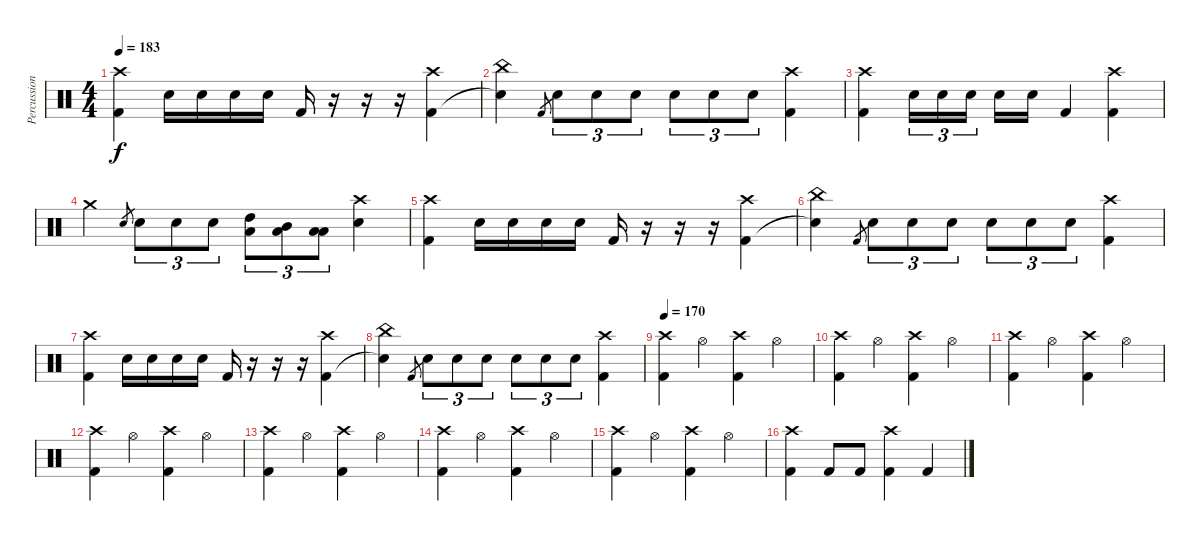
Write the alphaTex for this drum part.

\track ("Percussion" "Percussion") {instrument percussion}
\staff {score}
\articulation defaults
\ts (4 4)
\tempo 183
\clef neutral
\ks c
("Crash high (hit)" "Kick (hit) 2").4{dy f} "Electric Snare (hit)".16 "Electric Snare (hit)".16 "Electric Snare (hit)".16 "Electric Snare (hit)".16 "Kick (hit) 2".16 r.16 r.16 r.16 ("Crash high (hit)" "Kick (hit) 2").4 |
("China (hit)" "Snare (hit)"{t}).4 "Kick (hit) 2".8{gr} "Electric Snare (hit)".8{tu (3 2)} "Electric Snare (hit)".8{tu (3 2)} "Electric Snare (hit)".8{tu (3 2)} "Electric Snare (hit)".8{tu (3 2)} "Electric Snare (hit)".8{tu (3 2)} "Electric Snare (hit)".8{tu (3 2)} ("Crash high (hit)" "Kick (hit) 2").4 |
("Crash high (hit)" "Kick (hit) 2").4 "Electric Snare (hit)".16{tu (3 2)} "Electric Snare (hit)".16{tu (3 2)} "Electric Snare (hit)".16{tu (3 2)} "Electric Snare (hit)".16 "Electric Snare (hit)".16 "Kick (hit) 2".4 ("Crash high (hit)" "Kick (hit) 2").4 |
"Crash medium (hit)".4 "Electric Snare (hit)".8{gr} "Electric Snare (hit)".8{tu (3 2)} "Electric Snare (hit)".8{tu (3 2)} "Electric Snare (hit)".8{tu (3 2)} ("High Tom (hit)" "Low Floor Tom (hit)").8{tu (3 2)} ("Mid Tom (hit)" "Low Floor Tom (hit)").8{tu (3 2)} ("Low Tom (hit)" "Low Floor Tom (hit)").8{tu (3 2)} ("Crash high (hit)" "Electric Snare (hit)").4 |
("Crash high (hit)" "Kick (hit) 2").4 "Electric Snare (hit)".16 "Electric Snare (hit)".16 "Electric Snare (hit)".16 "Electric Snare (hit)".16 "Kick (hit) 2".16 r.16 r.16 r.16 ("Crash high (hit)" "Kick (hit) 2").4 |
("China (hit)" "Snare (hit)"{t}).4 "Kick (hit) 2".8{gr} "Electric Snare (hit)".8{tu (3 2)} "Electric Snare (hit)".8{tu (3 2)} "Electric Snare (hit)".8{tu (3 2)} "Electric Snare (hit)".8{tu (3 2)} "Electric Snare (hit)".8{tu (3 2)} "Electric Snare (hit)".8{tu (3 2)} ("Crash high (hit)" "Kick (hit) 2").4 |
("Crash high (hit)" "Kick (hit) 2").4 "Electric Snare (hit)".16 "Electric Snare (hit)".16 "Electric Snare (hit)".16 "Electric Snare (hit)".16 "Kick (hit) 2".16 r.16 r.16 r.16 ("Crash high (hit)" "Kick (hit) 2").4 |
("China (hit)" "Snare (hit)"{t}).4 "Kick (hit) 2".8{gr} "Electric Snare (hit)".8{tu (3 2)} "Electric Snare (hit)".8{tu (3 2)} "Electric Snare (hit)".8{tu (3 2)} "Electric Snare (hit)".8{tu (3 2)} "Electric Snare (hit)".8{tu (3 2)} "Electric Snare (hit)".8{tu (3 2)} ("Crash high (hit)" "Kick (hit) 2").4 |
\tempo 170
("Crash high (hit)" "Kick (hit) 2").4 "Hi-Hat (open)".4 ("Crash high (hit)" "Kick (hit) 2").4 "Hi-Hat (open)".4 |
("Crash high (hit)" "Kick (hit) 2").4 "Hi-Hat (open)".4 ("Crash high (hit)" "Kick (hit) 2").4 "Hi-Hat (open)".4 |
("Crash high (hit)" "Kick (hit) 2").4 "Hi-Hat (open)".4 ("Crash high (hit)" "Kick (hit) 2").4 "Hi-Hat (open)".4 |
("Crash high (hit)" "Kick (hit) 2").4 "Hi-Hat (open)".4 ("Crash high (hit)" "Kick (hit) 2").4 "Hi-Hat (open)".4 |
("Crash high (hit)" "Kick (hit) 2").4 "Hi-Hat (open)".4 ("Crash high (hit)" "Kick (hit) 2").4 "Hi-Hat (open)".4 |
("Crash high (hit)" "Kick (hit) 2").4 "Hi-Hat (open)".4 ("Crash high (hit)" "Kick (hit) 2").4 "Hi-Hat (open)".4 |
("Crash high (hit)" "Kick (hit) 2").4 "Hi-Hat (open)".4 ("Crash high (hit)" "Kick (hit) 2").4 "Hi-Hat (open)".4 |
("Crash high (hit)" "Kick (hit) 2").4 "Kick (hit) 2".8 "Kick (hit) 2".8 ("Crash high (hit)" "Kick (hit) 2").4 "Kick (hit) 2".4
